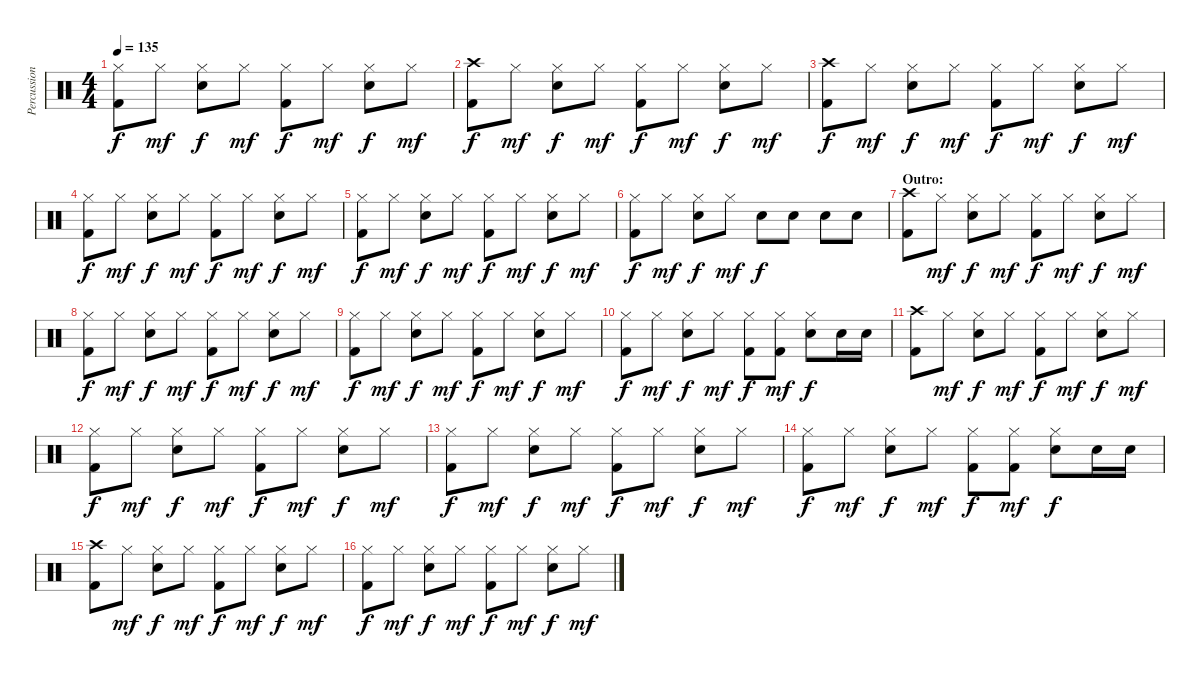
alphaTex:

\track ("Percussion" "Percussion") {instrument percussion}
\staff {score}
\articulation defaults
\ts (4 4)
\tempo 135
\clef neutral
\ks c
("Hi-Hat (closed)" "Kick (hit) 2").8{dy f} "Hi-Hat (closed)".8{dy mf} ("Hi-Hat (closed)" "Snare (hit) 2").8{dy f} "Hi-Hat (closed)".8{dy mf} ("Hi-Hat (closed)" "Kick (hit) 2").8{dy f} "Hi-Hat (closed)".8{dy mf} ("Hi-Hat (closed)" "Snare (hit) 2").8{dy f} "Hi-Hat (closed)".8{dy mf} |
("Crash high (hit)" "Kick (hit) 2").8{dy f} "Hi-Hat (closed)".8{dy mf} ("Hi-Hat (closed)" "Snare (hit) 2").8{dy f} "Hi-Hat (closed)".8{dy mf} ("Hi-Hat (closed)" "Kick (hit) 2").8{dy f} "Hi-Hat (closed)".8{dy mf} ("Hi-Hat (closed)" "Snare (hit) 2").8{dy f} "Hi-Hat (closed)".8{dy mf} |
("Crash high (hit)" "Kick (hit) 2").8{dy f} "Hi-Hat (closed)".8{dy mf} ("Hi-Hat (closed)" "Snare (hit) 2").8{dy f} "Hi-Hat (closed)".8{dy mf} ("Hi-Hat (closed)" "Kick (hit) 2").8{dy f} "Hi-Hat (closed)".8{dy mf} ("Hi-Hat (closed)" "Snare (hit) 2").8{dy f} "Hi-Hat (closed)".8{dy mf} |
("Hi-Hat (closed)" "Kick (hit) 2").8{dy f} "Hi-Hat (closed)".8{dy mf} ("Hi-Hat (closed)" "Snare (hit) 2").8{dy f} "Hi-Hat (closed)".8{dy mf} ("Hi-Hat (closed)" "Kick (hit) 2").8{dy f} "Hi-Hat (closed)".8{dy mf} ("Hi-Hat (closed)" "Snare (hit) 2").8{dy f} "Hi-Hat (closed)".8{dy mf} |
("Hi-Hat (closed)" "Kick (hit) 2").8{dy f} "Hi-Hat (closed)".8{dy mf} ("Hi-Hat (closed)" "Snare (hit) 2").8{dy f} "Hi-Hat (closed)".8{dy mf} ("Hi-Hat (closed)" "Kick (hit) 2").8{dy f} "Hi-Hat (closed)".8{dy mf} ("Hi-Hat (closed)" "Snare (hit) 2").8{dy f} "Hi-Hat (closed)".8{dy mf} |
("Hi-Hat (closed)" "Kick (hit) 2").8{dy f} "Hi-Hat (closed)".8{dy mf} ("Hi-Hat (closed)" "Snare (hit) 2").8{dy f} "Hi-Hat (closed)".8{dy mf} "Snare (hit) 2".8{dy f} "Snare (hit) 2".8 "Snare (hit) 2".8 "Snare (hit) 2".8 |
\section ("" "Outro:")
("Crash high (hit)" "Kick (hit) 2").8 "Hi-Hat (closed)".8{dy mf} ("Hi-Hat (closed)" "Snare (hit) 2").8{dy f} "Hi-Hat (closed)".8{dy mf} ("Hi-Hat (closed)" "Kick (hit) 2").8{dy f} "Hi-Hat (closed)".8{dy mf} ("Hi-Hat (closed)" "Snare (hit) 2").8{dy f} "Hi-Hat (closed)".8{dy mf} |
("Hi-Hat (closed)" "Kick (hit) 2").8{dy f} "Hi-Hat (closed)".8{dy mf} ("Hi-Hat (closed)" "Snare (hit) 2").8{dy f} "Hi-Hat (closed)".8{dy mf} ("Hi-Hat (closed)" "Kick (hit) 2").8{dy f} "Hi-Hat (closed)".8{dy mf} ("Hi-Hat (closed)" "Snare (hit) 2").8{dy f} "Hi-Hat (closed)".8{dy mf} |
("Hi-Hat (closed)" "Kick (hit) 2").8{dy f} "Hi-Hat (closed)".8{dy mf} ("Hi-Hat (closed)" "Snare (hit) 2").8{dy f} "Hi-Hat (closed)".8{dy mf} ("Hi-Hat (closed)" "Kick (hit) 2").8{dy f} "Hi-Hat (closed)".8{dy mf} ("Hi-Hat (closed)" "Snare (hit) 2").8{dy f} "Hi-Hat (closed)".8{dy mf} |
("Hi-Hat (closed)" "Kick (hit) 2").8{dy f} "Hi-Hat (closed)".8{dy mf} ("Hi-Hat (closed)" "Snare (hit) 2").8{dy f} "Hi-Hat (closed)".8{dy mf} ("Hi-Hat (closed)" "Kick (hit) 2").8{dy f} ("Hi-Hat (closed)" "Kick (hit) 2").8{dy mf} ("Hi-Hat (closed)" "Snare (hit) 2").8{dy f} "Snare (hit) 2".16 "Snare (hit) 2".16 |
("Crash high (hit)" "Kick (hit) 2").8 "Hi-Hat (closed)".8{dy mf} ("Hi-Hat (closed)" "Snare (hit) 2").8{dy f} "Hi-Hat (closed)".8{dy mf} ("Hi-Hat (closed)" "Kick (hit) 2").8{dy f} "Hi-Hat (closed)".8{dy mf} ("Hi-Hat (closed)" "Snare (hit) 2").8{dy f} "Hi-Hat (closed)".8{dy mf} |
("Hi-Hat (closed)" "Kick (hit) 2").8{dy f} "Hi-Hat (closed)".8{dy mf} ("Hi-Hat (closed)" "Snare (hit) 2").8{dy f} "Hi-Hat (closed)".8{dy mf} ("Hi-Hat (closed)" "Kick (hit) 2").8{dy f} "Hi-Hat (closed)".8{dy mf} ("Hi-Hat (closed)" "Snare (hit) 2").8{dy f} "Hi-Hat (closed)".8{dy mf} |
("Hi-Hat (closed)" "Kick (hit) 2").8{dy f} "Hi-Hat (closed)".8{dy mf} ("Hi-Hat (closed)" "Snare (hit) 2").8{dy f} "Hi-Hat (closed)".8{dy mf} ("Hi-Hat (closed)" "Kick (hit) 2").8{dy f} "Hi-Hat (closed)".8{dy mf} ("Hi-Hat (closed)" "Snare (hit) 2").8{dy f} "Hi-Hat (closed)".8{dy mf} |
("Hi-Hat (closed)" "Kick (hit) 2").8{dy f} "Hi-Hat (closed)".8{dy mf} ("Hi-Hat (closed)" "Snare (hit) 2").8{dy f} "Hi-Hat (closed)".8{dy mf} ("Hi-Hat (closed)" "Kick (hit) 2").8{dy f} ("Hi-Hat (closed)" "Kick (hit) 2").8{dy mf} ("Hi-Hat (closed)" "Snare (hit) 2").8{dy f} "Snare (hit) 2".16 "Snare (hit) 2".16 |
("Crash high (hit)" "Kick (hit) 2").8 "Hi-Hat (closed)".8{dy mf} ("Hi-Hat (closed)" "Snare (hit) 2").8{dy f} "Hi-Hat (closed)".8{dy mf} ("Hi-Hat (closed)" "Kick (hit) 2").8{dy f} "Hi-Hat (closed)".8{dy mf} ("Hi-Hat (closed)" "Snare (hit) 2").8{dy f} "Hi-Hat (closed)".8{dy mf} |
("Hi-Hat (closed)" "Kick (hit) 2").8{dy f} "Hi-Hat (closed)".8{dy mf} ("Hi-Hat (closed)" "Snare (hit) 2").8{dy f} "Hi-Hat (closed)".8{dy mf} ("Hi-Hat (closed)" "Kick (hit) 2").8{dy f} "Hi-Hat (closed)".8{dy mf} ("Hi-Hat (closed)" "Snare (hit) 2").8{dy f} "Hi-Hat (closed)".8{dy mf}
